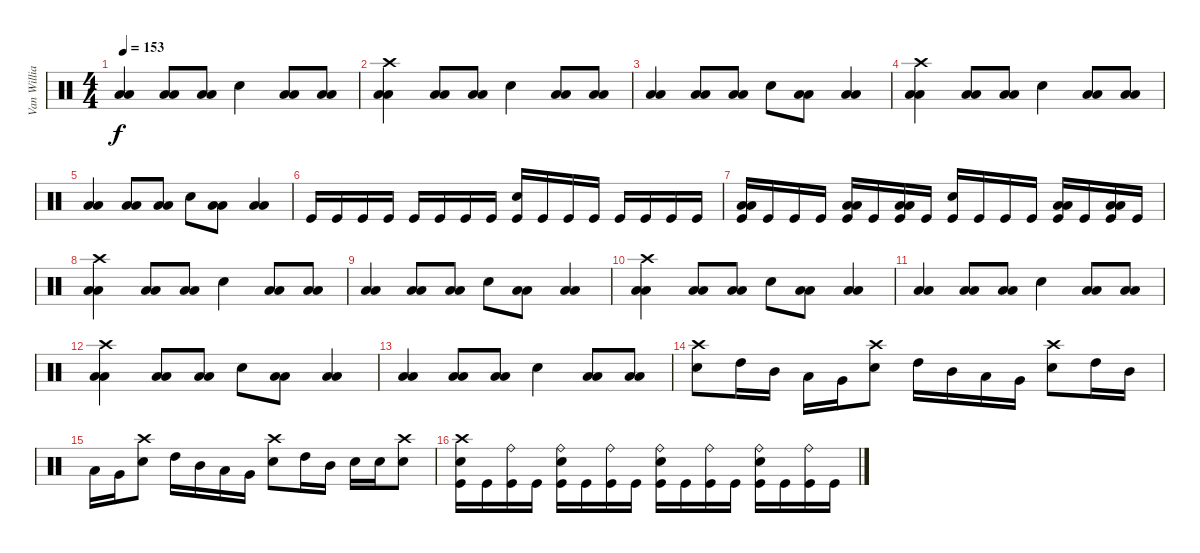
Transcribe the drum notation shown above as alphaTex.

\track ("Van Williams" "Van Willia") {instrument percussion}
\staff {score}
\articulation defaults
\ts (4 4)
\tempo 153
\clef neutral
\ks c
("Low Floor Tom (hit)" "Low Floor Tom (hit)").4{dy f} ("Low Floor Tom (hit)" "Low Floor Tom (hit)").8 ("Low Floor Tom (hit)" "Low Floor Tom (hit)").8 "Electric Snare (hit)".4 ("Low Floor Tom (hit)" "Low Floor Tom (hit)").8 ("Low Floor Tom (hit)" "Low Floor Tom (hit)").8 |
("Crash high (hit)" "Low Floor Tom (hit)" "Low Floor Tom (hit)").4 ("Low Floor Tom (hit)" "Low Floor Tom (hit)").8 ("Low Floor Tom (hit)" "Low Floor Tom (hit)").8 "Electric Snare (hit)".4 ("Low Floor Tom (hit)" "Low Floor Tom (hit)").8 ("Low Floor Tom (hit)" "Low Floor Tom (hit)").8 |
("Low Floor Tom (hit)" "Low Floor Tom (hit)").4 ("Low Floor Tom (hit)" "Low Floor Tom (hit)").8 ("Low Floor Tom (hit)" "Low Floor Tom (hit)").8 "Electric Snare (hit)".8 ("Low Floor Tom (hit)" "Low Floor Tom (hit)").8 ("Low Floor Tom (hit)" "Low Floor Tom (hit)").4 |
("Crash high (hit)" "Low Floor Tom (hit)" "Low Floor Tom (hit)").4 ("Low Floor Tom (hit)" "Low Floor Tom (hit)").8 ("Low Floor Tom (hit)" "Low Floor Tom (hit)").8 "Electric Snare (hit)".4 ("Low Floor Tom (hit)" "Low Floor Tom (hit)").8 ("Low Floor Tom (hit)" "Low Floor Tom (hit)").8 |
("Low Floor Tom (hit)" "Low Floor Tom (hit)").4 ("Low Floor Tom (hit)" "Low Floor Tom (hit)").8 ("Low Floor Tom (hit)" "Low Floor Tom (hit)").8 "Electric Snare (hit)".8 ("Low Floor Tom (hit)" "Low Floor Tom (hit)").8 ("Low Floor Tom (hit)" "Low Floor Tom (hit)").4 |
"Kick (hit)".16 "Kick (hit)".16 "Kick (hit)".16 "Kick (hit)".16 "Kick (hit)".16 "Kick (hit)".16 "Kick (hit)".16 "Kick (hit)".16 ("Electric Snare (hit)" "Kick (hit)").16 "Kick (hit)".16 "Kick (hit)".16 "Kick (hit)".16 "Kick (hit)".16 "Kick (hit)".16 "Kick (hit)".16 "Kick (hit)".16 |
("Low Floor Tom (hit)" "Low Floor Tom (hit)" "Kick (hit)").16 "Kick (hit)".16 "Kick (hit)".16 "Kick (hit)".16 ("Low Floor Tom (hit)" "Low Floor Tom (hit)" "Kick (hit)").16 "Kick (hit)".16 ("Low Floor Tom (hit)" "Low Floor Tom (hit)" "Kick (hit)").16 "Kick (hit)".16 ("Electric Snare (hit)" "Kick (hit)").16 "Kick (hit)".16 "Kick (hit)".16 "Kick (hit)".16 ("Low Floor Tom (hit)" "Low Floor Tom (hit)" "Kick (hit)").16 "Kick (hit)".16 ("Low Floor Tom (hit)" "Low Floor Tom (hit)" "Kick (hit)").16 "Kick (hit)".16 |
("Crash high (hit)" "Low Floor Tom (hit)" "Low Floor Tom (hit)").4 ("Low Floor Tom (hit)" "Low Floor Tom (hit)").8 ("Low Floor Tom (hit)" "Low Floor Tom (hit)").8 "Electric Snare (hit)".4 ("Low Floor Tom (hit)" "Low Floor Tom (hit)").8 ("Low Floor Tom (hit)" "Low Floor Tom (hit)").8 |
("Low Floor Tom (hit)" "Low Floor Tom (hit)").4 ("Low Floor Tom (hit)" "Low Floor Tom (hit)").8 ("Low Floor Tom (hit)" "Low Floor Tom (hit)").8 "Electric Snare (hit)".8 ("Low Floor Tom (hit)" "Low Floor Tom (hit)").8 ("Low Floor Tom (hit)" "Low Floor Tom (hit)").4 |
("Crash high (hit)" "Low Floor Tom (hit)" "Low Floor Tom (hit)").4 ("Low Floor Tom (hit)" "Low Floor Tom (hit)").8 ("Low Floor Tom (hit)" "Low Floor Tom (hit)").8 "Electric Snare (hit)".8 ("Low Floor Tom (hit)" "Low Floor Tom (hit)").8 ("Low Floor Tom (hit)" "Low Floor Tom (hit)").4 |
("Low Floor Tom (hit)" "Low Floor Tom (hit)").4 ("Low Floor Tom (hit)" "Low Floor Tom (hit)").8 ("Low Floor Tom (hit)" "Low Floor Tom (hit)").8 "Electric Snare (hit)".4 ("Low Floor Tom (hit)" "Low Floor Tom (hit)").8 ("Low Floor Tom (hit)" "Low Floor Tom (hit)").8 |
("Crash high (hit)" "Low Floor Tom (hit)" "Low Floor Tom (hit)").4 ("Low Floor Tom (hit)" "Low Floor Tom (hit)").8 ("Low Floor Tom (hit)" "Low Floor Tom (hit)").8 "Electric Snare (hit)".8 ("Low Floor Tom (hit)" "Low Floor Tom (hit)").8 ("Low Floor Tom (hit)" "Low Floor Tom (hit)").4 |
("Low Floor Tom (hit)" "Low Floor Tom (hit)").4 ("Low Floor Tom (hit)" "Low Floor Tom (hit)").8 ("Low Floor Tom (hit)" "Low Floor Tom (hit)").8 "Electric Snare (hit)".4 ("Low Floor Tom (hit)" "Low Floor Tom (hit)").8 ("Low Floor Tom (hit)" "Low Floor Tom (hit)").8 |
("Crash high (hit)" "Electric Snare (hit)").8 "High Tom (hit)".16 "Mid Tom (hit)".16 "Low Tom (hit)".16 "Very Low Tom (hit)".16 ("Crash high (hit)" "Electric Snare (hit)").8 "High Tom (hit)".16 "Mid Tom (hit)".16 "Low Tom (hit)".16 "Very Low Tom (hit)".16 ("Crash high (hit)" "Electric Snare (hit)").8 "High Tom (hit)".16 "Mid Tom (hit)".16 |
"Low Tom (hit)".16 "Very Low Tom (hit)".16 ("Crash high (hit)" "Electric Snare (hit)").8 "High Tom (hit)".16 "Mid Tom (hit)".16 "Low Tom (hit)".16 "Very Low Tom (hit)".16 ("Crash high (hit)" "Electric Snare (hit)").8 "High Tom (hit)".16 "Mid Tom (hit)".16 "Electric Snare (hit)".16 "Electric Snare (hit)".16 ("Crash high (hit)" "Electric Snare (hit)").8 |
("Crash high (hit)" "Electric Snare (hit)" "Kick (hit)").16 "Kick (hit)".16 ("Ride (bell)" "Kick (hit)").16 "Kick (hit)".16 ("Ride (bell)" "Electric Snare (hit)" "Kick (hit)").16 "Kick (hit)".16 ("Ride (bell)" "Kick (hit)").16 "Kick (hit)".16 ("Ride (bell)" "Electric Snare (hit)" "Kick (hit)").16 "Kick (hit)".16 ("Ride (bell)" "Kick (hit)").16 "Kick (hit)".16 ("Ride (bell)" "Electric Snare (hit)" "Kick (hit)").16 "Kick (hit)".16 ("Ride (bell)" "Kick (hit)").16 "Kick (hit)".16
